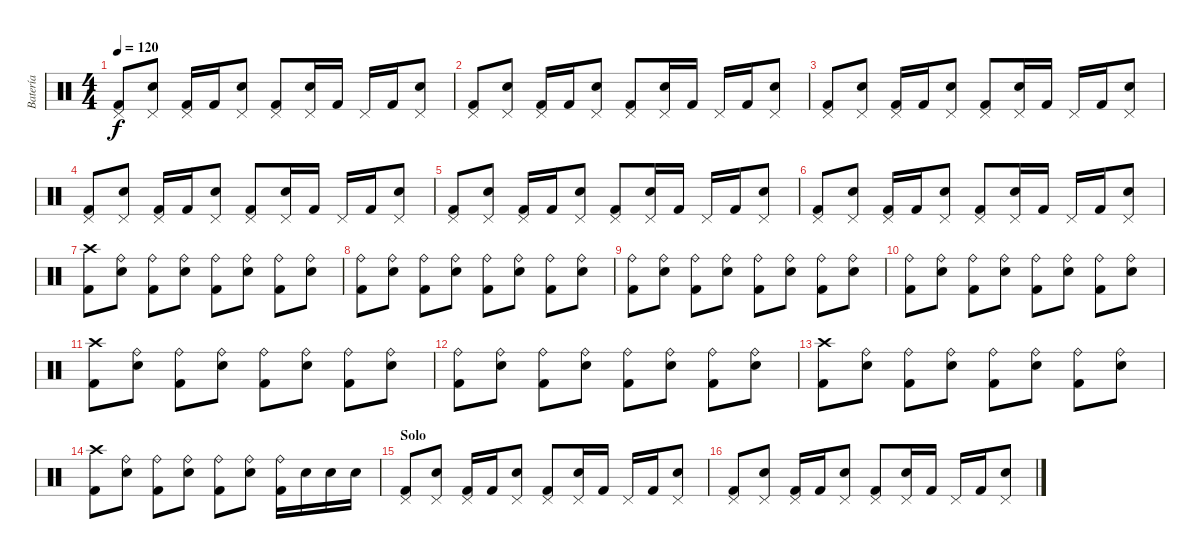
\track ("Batería" "Batería") {instrument percussion}
\staff {score}
\articulation defaults
\ts (4 4)
\tempo 120
\clef neutral
\ks c
("Pedal Hi-Hat (hit)" "Kick (hit) 2").8{dy f} ("Pedal Hi-Hat (hit)" "Snare (hit) 2").8 ("Pedal Hi-Hat (hit)" "Kick (hit) 2").16 "Kick (hit) 2".16 ("Pedal Hi-Hat (hit)" "Snare (hit) 2").8 ("Pedal Hi-Hat (hit)" "Kick (hit) 2").8 ("Pedal Hi-Hat (hit)" "Snare (hit) 2").16 "Kick (hit) 2".16 "Pedal Hi-Hat (hit)".16 "Kick (hit) 2".16 ("Pedal Hi-Hat (hit)" "Snare (hit) 2").8 |
("Pedal Hi-Hat (hit)" "Kick (hit) 2").8 ("Pedal Hi-Hat (hit)" "Snare (hit) 2").8 ("Pedal Hi-Hat (hit)" "Kick (hit) 2").16 "Kick (hit) 2".16 ("Pedal Hi-Hat (hit)" "Snare (hit) 2").8 ("Pedal Hi-Hat (hit)" "Kick (hit) 2").8 ("Pedal Hi-Hat (hit)" "Snare (hit) 2").16 "Kick (hit) 2".16 "Pedal Hi-Hat (hit)".16 "Kick (hit) 2".16 ("Pedal Hi-Hat (hit)" "Snare (hit) 2").8 |
("Pedal Hi-Hat (hit)" "Kick (hit) 2").8 ("Pedal Hi-Hat (hit)" "Snare (hit) 2").8 ("Pedal Hi-Hat (hit)" "Kick (hit) 2").16 "Kick (hit) 2".16 ("Pedal Hi-Hat (hit)" "Snare (hit) 2").8 ("Pedal Hi-Hat (hit)" "Kick (hit) 2").8 ("Pedal Hi-Hat (hit)" "Snare (hit) 2").16 "Kick (hit) 2".16 "Pedal Hi-Hat (hit)".16 "Kick (hit) 2".16 ("Pedal Hi-Hat (hit)" "Snare (hit) 2").8 |
("Pedal Hi-Hat (hit)" "Kick (hit) 2").8 ("Pedal Hi-Hat (hit)" "Snare (hit) 2").8 ("Pedal Hi-Hat (hit)" "Kick (hit) 2").16 "Kick (hit) 2".16 ("Pedal Hi-Hat (hit)" "Snare (hit) 2").8 ("Pedal Hi-Hat (hit)" "Kick (hit) 2").8 ("Pedal Hi-Hat (hit)" "Snare (hit) 2").16 "Kick (hit) 2".16 "Pedal Hi-Hat (hit)".16 "Kick (hit) 2".16 ("Pedal Hi-Hat (hit)" "Snare (hit) 2").8 |
("Pedal Hi-Hat (hit)" "Kick (hit) 2").8 ("Pedal Hi-Hat (hit)" "Snare (hit) 2").8 ("Pedal Hi-Hat (hit)" "Kick (hit) 2").16 "Kick (hit) 2".16 ("Pedal Hi-Hat (hit)" "Snare (hit) 2").8 ("Pedal Hi-Hat (hit)" "Kick (hit) 2").8 ("Pedal Hi-Hat (hit)" "Snare (hit) 2").16 "Kick (hit) 2".16 "Pedal Hi-Hat (hit)".16 "Kick (hit) 2".16 ("Pedal Hi-Hat (hit)" "Snare (hit) 2").8 |
("Pedal Hi-Hat (hit)" "Kick (hit) 2").8 ("Pedal Hi-Hat (hit)" "Snare (hit) 2").8 ("Pedal Hi-Hat (hit)" "Kick (hit) 2").16 "Kick (hit) 2".16 ("Pedal Hi-Hat (hit)" "Snare (hit) 2").8 ("Pedal Hi-Hat (hit)" "Kick (hit) 2").8 ("Pedal Hi-Hat (hit)" "Snare (hit) 2").16 "Kick (hit) 2".16 "Pedal Hi-Hat (hit)".16 "Kick (hit) 2".16 ("Pedal Hi-Hat (hit)" "Snare (hit) 2").8 |
("Crash high (hit)" "Kick (hit) 2").8 ("Ride (bell)" "Snare (hit) 2").8 ("Ride (bell)" "Kick (hit) 2").8 ("Ride (bell)" "Snare (hit) 2").8 ("Ride (bell)" "Kick (hit) 2").8 ("Ride (bell)" "Snare (hit) 2").8 ("Ride (bell)" "Kick (hit) 2").8 ("Ride (bell)" "Snare (hit) 2").8 |
("Ride (bell)" "Kick (hit) 2").8 ("Ride (bell)" "Snare (hit) 2").8 ("Ride (bell)" "Kick (hit) 2").8 ("Ride (bell)" "Snare (hit) 2").8 ("Ride (bell)" "Kick (hit) 2").8 ("Ride (bell)" "Snare (hit) 2").8 ("Ride (bell)" "Kick (hit) 2").8 ("Ride (bell)" "Snare (hit) 2").8 |
("Ride (bell)" "Kick (hit) 2").8 ("Ride (bell)" "Snare (hit) 2").8 ("Ride (bell)" "Kick (hit) 2").8 ("Ride (bell)" "Snare (hit) 2").8 ("Ride (bell)" "Kick (hit) 2").8 ("Ride (bell)" "Snare (hit) 2").8 ("Ride (bell)" "Kick (hit) 2").8 ("Ride (bell)" "Snare (hit) 2").8 |
("Ride (bell)" "Kick (hit) 2").8 ("Ride (bell)" "Snare (hit) 2").8 ("Ride (bell)" "Kick (hit) 2").8 ("Ride (bell)" "Snare (hit) 2").8 ("Ride (bell)" "Kick (hit) 2").8 ("Ride (bell)" "Snare (hit) 2").8 ("Ride (bell)" "Kick (hit) 2").8 ("Ride (bell)" "Snare (hit) 2").8 |
("Crash high (hit)" "Kick (hit) 2").8 ("Ride (bell)" "Snare (hit) 2").8 ("Ride (bell)" "Kick (hit) 2").8 ("Ride (bell)" "Snare (hit) 2").8 ("Ride (bell)" "Kick (hit) 2").8 ("Ride (bell)" "Snare (hit) 2").8 ("Ride (bell)" "Kick (hit) 2").8 ("Ride (bell)" "Snare (hit) 2").8 |
("Ride (bell)" "Kick (hit) 2").8 ("Ride (bell)" "Snare (hit) 2").8 ("Ride (bell)" "Kick (hit) 2").8 ("Ride (bell)" "Snare (hit) 2").8 ("Ride (bell)" "Kick (hit) 2").8 ("Ride (bell)" "Snare (hit) 2").8 ("Ride (bell)" "Kick (hit) 2").8 ("Ride (bell)" "Snare (hit) 2").8 |
("Crash high (hit)" "Kick (hit) 2").8 ("Ride (bell)" "Snare (hit) 2").8 ("Ride (bell)" "Kick (hit) 2").8 ("Ride (bell)" "Snare (hit) 2").8 ("Ride (bell)" "Kick (hit) 2").8 ("Ride (bell)" "Snare (hit) 2").8 ("Ride (bell)" "Kick (hit) 2").8 ("Ride (bell)" "Snare (hit) 2").8 |
("Crash high (hit)" "Kick (hit) 2").8 ("Ride (bell)" "Snare (hit) 2").8 ("Ride (bell)" "Kick (hit) 2").8 ("Ride (bell)" "Snare (hit) 2").8 ("Ride (bell)" "Kick (hit) 2").8 ("Ride (bell)" "Snare (hit) 2").8 ("Ride (bell)" "Kick (hit) 2").16 "Snare (hit) 2".16 "Snare (hit) 2".16 "Snare (hit) 2".16 |
\section ("" "Solo")
("Pedal Hi-Hat (hit)" "Kick (hit) 2").8 ("Pedal Hi-Hat (hit)" "Snare (hit) 2").8 ("Pedal Hi-Hat (hit)" "Kick (hit) 2").16 "Kick (hit) 2".16 ("Pedal Hi-Hat (hit)" "Snare (hit) 2").8 ("Pedal Hi-Hat (hit)" "Kick (hit) 2").8 ("Pedal Hi-Hat (hit)" "Snare (hit) 2").16 "Kick (hit) 2".16 "Pedal Hi-Hat (hit)".16 "Kick (hit) 2".16 ("Pedal Hi-Hat (hit)" "Snare (hit) 2").8 |
("Pedal Hi-Hat (hit)" "Kick (hit) 2").8 ("Pedal Hi-Hat (hit)" "Snare (hit) 2").8 ("Pedal Hi-Hat (hit)" "Kick (hit) 2").16 "Kick (hit) 2".16 ("Pedal Hi-Hat (hit)" "Snare (hit) 2").8 ("Pedal Hi-Hat (hit)" "Kick (hit) 2").8 ("Pedal Hi-Hat (hit)" "Snare (hit) 2").16 "Kick (hit) 2".16 "Pedal Hi-Hat (hit)".16 "Kick (hit) 2".16 ("Pedal Hi-Hat (hit)" "Snare (hit) 2").8
